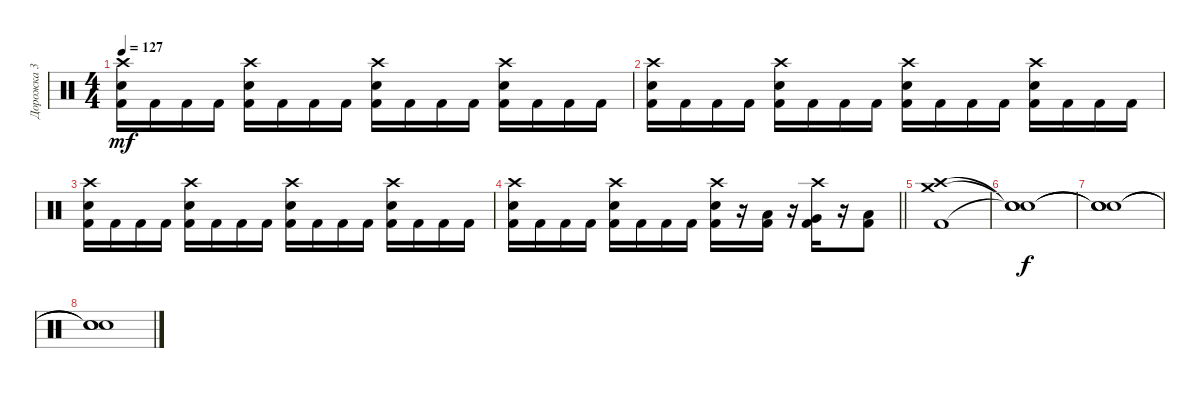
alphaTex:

\track ("Дорожка 3" "Дорожка 3") {instrument percussion}
\staff {score}
\articulation defaults
\ts (4 4)
\tempo 127
\clef neutral
\ks c
("Crash high (hit)" "Electric Snare (hit)" "Kick (hit) 2").16{dy mf} "Kick (hit) 2".16 "Kick (hit) 2".16 "Kick (hit) 2".16 ("Crash high (hit)" "Electric Snare (hit)" "Kick (hit) 2").16 "Kick (hit) 2".16 "Kick (hit) 2".16 "Kick (hit) 2".16 ("Crash high (hit)" "Electric Snare (hit)" "Kick (hit) 2").16 "Kick (hit) 2".16 "Kick (hit) 2".16 "Kick (hit) 2".16 ("Crash high (hit)" "Electric Snare (hit)" "Kick (hit) 2").16 "Kick (hit) 2".16 "Kick (hit) 2".16 "Kick (hit) 2".16 |
("Crash high (hit)" "Electric Snare (hit)" "Kick (hit) 2").16 "Kick (hit) 2".16 "Kick (hit) 2".16 "Kick (hit) 2".16 ("Crash high (hit)" "Electric Snare (hit)" "Kick (hit) 2").16 "Kick (hit) 2".16 "Kick (hit) 2".16 "Kick (hit) 2".16 ("Crash high (hit)" "Electric Snare (hit)" "Kick (hit) 2").16 "Kick (hit) 2".16 "Kick (hit) 2".16 "Kick (hit) 2".16 ("Crash high (hit)" "Electric Snare (hit)" "Kick (hit) 2").16 "Kick (hit) 2".16 "Kick (hit) 2".16 "Kick (hit) 2".16 |
("Crash high (hit)" "Electric Snare (hit)" "Kick (hit) 2").16 "Kick (hit) 2".16 "Kick (hit) 2".16 "Kick (hit) 2".16 ("Crash high (hit)" "Electric Snare (hit)" "Kick (hit) 2").16 "Kick (hit) 2".16 "Kick (hit) 2".16 "Kick (hit) 2".16 ("Crash high (hit)" "Electric Snare (hit)" "Kick (hit) 2").16 "Kick (hit) 2".16 "Kick (hit) 2".16 "Kick (hit) 2".16 ("Crash high (hit)" "Electric Snare (hit)" "Kick (hit) 2").16 "Kick (hit) 2".16 "Kick (hit) 2".16 "Kick (hit) 2".16 |
\barLineRight lightlight
("Crash high (hit)" "Electric Snare (hit)" "Kick (hit) 2").16 "Kick (hit) 2".16 "Kick (hit) 2".16 "Kick (hit) 2".16 ("Crash high (hit)" "Electric Snare (hit)" "Kick (hit) 2").16 "Kick (hit) 2".16 "Kick (hit) 2".16 "Kick (hit) 2".16 ("Crash high (hit)" "Electric Snare (hit)" "Kick (hit) 2").16 r.16 ("Low Tom (hit)" "Kick (hit) 2").16 r.16 ("Crash high (hit)" "Very Low Tom (hit)" "Kick (hit) 2").16 r.16 ("Low Floor Tom (hit)" "Kick (hit) 2").8 |
("Crash medium (hit)" "Crash high (hit)" "Kick (hit) 2").1 |
("Snare (hit)"{t} "Snare (hit)"{t} "Snare (hit)"{t}).1{dy f} |
("Snare (hit)"{t} "Snare (hit)"{t} "Snare (hit)"{t}).1 |
("Snare (hit)"{t} "Snare (hit)"{t} "Snare (hit)"{t}).1
